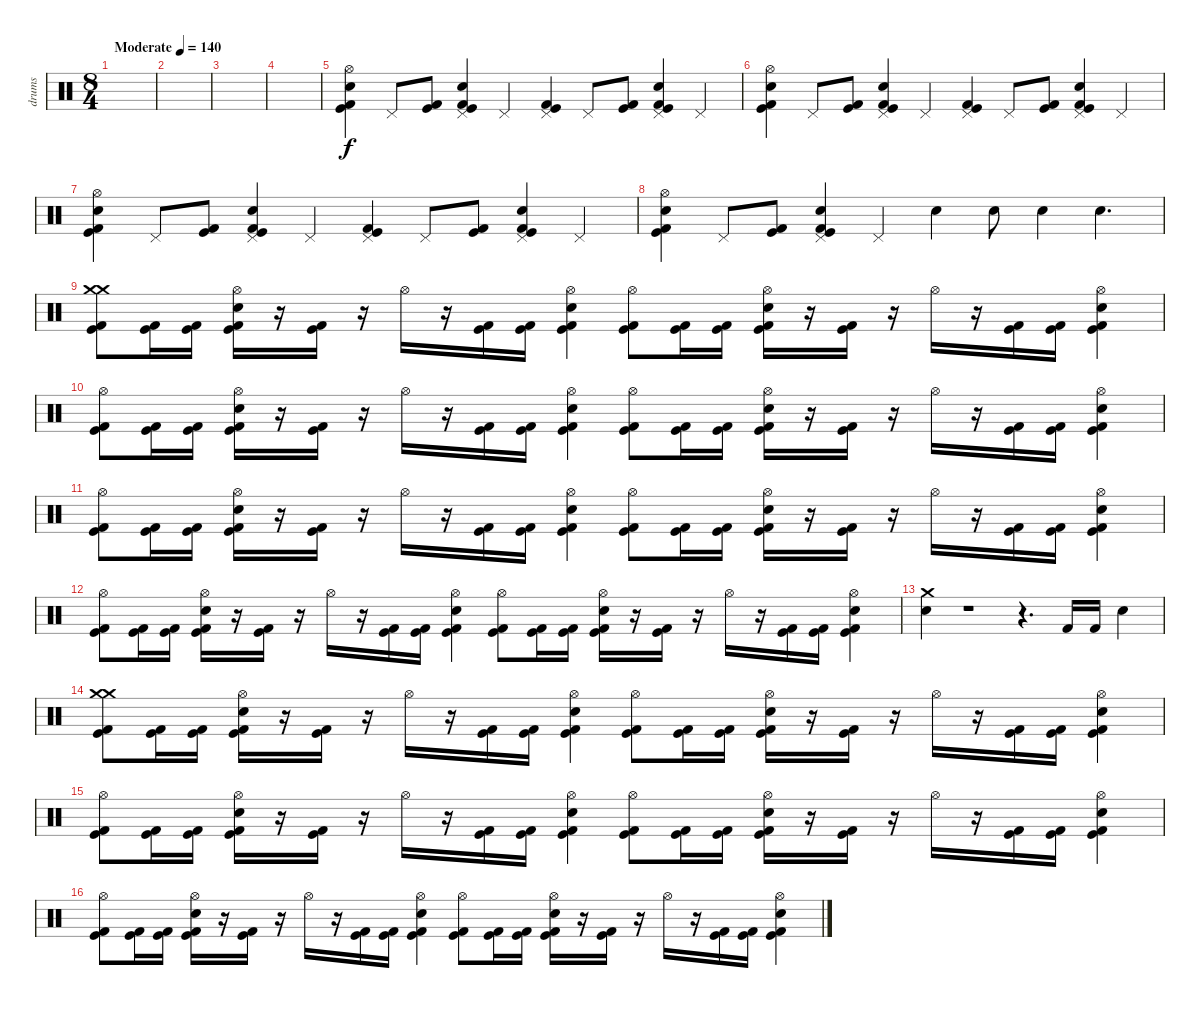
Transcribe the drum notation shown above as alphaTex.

\track ("drums" "drums") {instrument percussion}
\staff {score}
\articulation defaults
\ts (8 4)
\tempo (140 "Moderate")
\clef neutral
\ks c
|
|
|
|
("Snare (hit) 2" "Kick (hit) 2" "Kick (hit)" "Hi-Hat (open)").4 "Pedal Hi-Hat (hit)".8 ("Kick (hit)" "Kick (hit) 2").8 ("Snare (hit) 2" "Kick (hit)" "Kick (hit) 2" "Pedal Hi-Hat (hit)").4 "Pedal Hi-Hat (hit)".4 ("Kick (hit)" "Kick (hit) 2" "Pedal Hi-Hat (hit)").4 "Pedal Hi-Hat (hit)".8 ("Kick (hit)" "Kick (hit) 2").8 ("Kick (hit)" "Kick (hit) 2" "Snare (hit) 2" "Pedal Hi-Hat (hit)").4 "Pedal Hi-Hat (hit)".4 |
("Snare (hit) 2" "Kick (hit) 2" "Kick (hit)" "Hi-Hat (open)").4 "Pedal Hi-Hat (hit)".8 ("Kick (hit)" "Kick (hit) 2").8 ("Snare (hit) 2" "Kick (hit)" "Kick (hit) 2" "Pedal Hi-Hat (hit)").4 "Pedal Hi-Hat (hit)".4 ("Kick (hit)" "Kick (hit) 2" "Pedal Hi-Hat (hit)").4 "Pedal Hi-Hat (hit)".8 ("Kick (hit)" "Kick (hit) 2").8 ("Kick (hit)" "Kick (hit) 2" "Snare (hit) 2" "Pedal Hi-Hat (hit)").4 "Pedal Hi-Hat (hit)".4 |
("Snare (hit) 2" "Kick (hit) 2" "Kick (hit)" "Hi-Hat (open)").4 "Pedal Hi-Hat (hit)".8 ("Kick (hit)" "Kick (hit) 2").8 ("Snare (hit) 2" "Kick (hit)" "Kick (hit) 2" "Pedal Hi-Hat (hit)").4 "Pedal Hi-Hat (hit)".4 ("Kick (hit)" "Kick (hit) 2" "Pedal Hi-Hat (hit)").4 "Pedal Hi-Hat (hit)".8 ("Kick (hit)" "Kick (hit) 2").8 ("Kick (hit)" "Kick (hit) 2" "Snare (hit) 2" "Pedal Hi-Hat (hit)").4 "Pedal Hi-Hat (hit)".4 |
("Snare (hit) 2" "Kick (hit) 2" "Kick (hit)" "Hi-Hat (open)").4 "Pedal Hi-Hat (hit)".8 ("Kick (hit)" "Kick (hit) 2").8 ("Snare (hit) 2" "Kick (hit)" "Kick (hit) 2" "Pedal Hi-Hat (hit)").4 "Pedal Hi-Hat (hit)".4 "Snare (hit) 2".4 "Snare (hit) 2".8 "Snare (hit) 2".4 "Snare (hit) 2".4{d} |
("Kick (hit) 2" "Kick (hit)" "Crash medium (hit)" "Crash medium (hit)").8 ("Kick (hit) 2" "Kick (hit)").16 ("Kick (hit) 2" "Kick (hit)").16 ("Kick (hit) 2" "Kick (hit)" "Snare (hit) 2" "Hi-Hat (open)").16 r.16 ("Kick (hit) 2" "Kick (hit)").16 r.16 "Hi-Hat (open)".16 r.16 ("Kick (hit)" "Kick (hit) 2").16 ("Kick (hit) 2" "Kick (hit)").16 ("Kick (hit)" "Kick (hit) 2" "Snare (hit) 2" "Hi-Hat (open)").4 ("Kick (hit) 2" "Kick (hit)" "Hi-Hat (open)").8 ("Kick (hit) 2" "Kick (hit)").16 ("Kick (hit) 2" "Kick (hit)").16 ("Kick (hit) 2" "Kick (hit)" "Snare (hit) 2" "Hi-Hat (open)").16 r.16 ("Kick (hit) 2" "Kick (hit)").16 r.16 "Hi-Hat (open)".16 r.16 ("Kick (hit)" "Kick (hit) 2").16 ("Kick (hit) 2" "Kick (hit)").16 ("Kick (hit)" "Kick (hit) 2" "Snare (hit) 2" "Hi-Hat (open)").4 |
("Kick (hit) 2" "Kick (hit)" "Hi-Hat (open)").8 ("Kick (hit) 2" "Kick (hit)").16 ("Kick (hit) 2" "Kick (hit)").16 ("Kick (hit) 2" "Kick (hit)" "Snare (hit) 2" "Hi-Hat (open)").16 r.16 ("Kick (hit) 2" "Kick (hit)").16 r.16 "Hi-Hat (open)".16 r.16 ("Kick (hit)" "Kick (hit) 2").16 ("Kick (hit) 2" "Kick (hit)").16 ("Kick (hit)" "Kick (hit) 2" "Snare (hit) 2" "Hi-Hat (open)").4 ("Kick (hit) 2" "Kick (hit)" "Hi-Hat (open)").8 ("Kick (hit) 2" "Kick (hit)").16 ("Kick (hit) 2" "Kick (hit)").16 ("Kick (hit) 2" "Kick (hit)" "Snare (hit) 2" "Hi-Hat (open)").16 r.16 ("Kick (hit) 2" "Kick (hit)").16 r.16 "Hi-Hat (open)".16 r.16 ("Kick (hit)" "Kick (hit) 2").16 ("Kick (hit) 2" "Kick (hit)").16 ("Kick (hit)" "Kick (hit) 2" "Snare (hit) 2" "Hi-Hat (open)").4 |
("Kick (hit) 2" "Kick (hit)" "Hi-Hat (open)").8 ("Kick (hit) 2" "Kick (hit)").16 ("Kick (hit) 2" "Kick (hit)").16 ("Kick (hit) 2" "Kick (hit)" "Snare (hit) 2" "Hi-Hat (open)").16 r.16 ("Kick (hit) 2" "Kick (hit)").16 r.16 "Hi-Hat (open)".16 r.16 ("Kick (hit)" "Kick (hit) 2").16 ("Kick (hit) 2" "Kick (hit)").16 ("Kick (hit)" "Kick (hit) 2" "Snare (hit) 2" "Hi-Hat (open)").4 ("Kick (hit) 2" "Kick (hit)" "Hi-Hat (open)").8 ("Kick (hit) 2" "Kick (hit)").16 ("Kick (hit) 2" "Kick (hit)").16 ("Kick (hit) 2" "Kick (hit)" "Snare (hit) 2" "Hi-Hat (open)").16 r.16 ("Kick (hit) 2" "Kick (hit)").16 r.16 "Hi-Hat (open)".16 r.16 ("Kick (hit)" "Kick (hit) 2").16 ("Kick (hit) 2" "Kick (hit)").16 ("Kick (hit)" "Kick (hit) 2" "Snare (hit) 2" "Hi-Hat (open)").4 |
("Kick (hit) 2" "Kick (hit)" "Hi-Hat (open)").8 ("Kick (hit) 2" "Kick (hit)").16 ("Kick (hit) 2" "Kick (hit)").16 ("Kick (hit) 2" "Kick (hit)" "Snare (hit) 2" "Hi-Hat (open)").16 r.16 ("Kick (hit) 2" "Kick (hit)").16 r.16 "Hi-Hat (open)".16 r.16 ("Kick (hit)" "Kick (hit) 2").16 ("Kick (hit) 2" "Kick (hit)").16 ("Kick (hit)" "Kick (hit) 2" "Snare (hit) 2" "Hi-Hat (open)").4 ("Kick (hit) 2" "Kick (hit)" "Hi-Hat (open)").8 ("Kick (hit) 2" "Kick (hit)").16 ("Kick (hit) 2" "Kick (hit)").16 ("Kick (hit) 2" "Kick (hit)" "Snare (hit) 2" "Hi-Hat (open)").16 r.16 ("Kick (hit) 2" "Kick (hit)").16 r.16 "Hi-Hat (open)".16 r.16 ("Kick (hit)" "Kick (hit) 2").16 ("Kick (hit) 2" "Kick (hit)").16 ("Kick (hit)" "Kick (hit) 2" "Snare (hit) 2" "Hi-Hat (open)").4 |
("Crash medium (hit)" "Snare (hit) 2").4 r.1 r.4{d} "Kick (hit) 2".16 "Kick (hit) 2".16 "Electric Snare (hit)".4 |
("Kick (hit) 2" "Kick (hit)" "Crash medium (hit)" "Crash medium (hit)").8 ("Kick (hit) 2" "Kick (hit)").16 ("Kick (hit) 2" "Kick (hit)").16 ("Kick (hit) 2" "Kick (hit)" "Snare (hit) 2" "Hi-Hat (open)").16 r.16 ("Kick (hit) 2" "Kick (hit)").16 r.16 "Hi-Hat (open)".16 r.16 ("Kick (hit)" "Kick (hit) 2").16 ("Kick (hit) 2" "Kick (hit)").16 ("Kick (hit)" "Kick (hit) 2" "Snare (hit) 2" "Hi-Hat (open)").4 ("Kick (hit) 2" "Kick (hit)" "Hi-Hat (open)").8 ("Kick (hit) 2" "Kick (hit)").16 ("Kick (hit) 2" "Kick (hit)").16 ("Kick (hit) 2" "Kick (hit)" "Snare (hit) 2" "Hi-Hat (open)").16 r.16 ("Kick (hit) 2" "Kick (hit)").16 r.16 "Hi-Hat (open)".16 r.16 ("Kick (hit)" "Kick (hit) 2").16 ("Kick (hit) 2" "Kick (hit)").16 ("Kick (hit)" "Kick (hit) 2" "Snare (hit) 2" "Hi-Hat (open)").4 |
("Kick (hit) 2" "Kick (hit)" "Hi-Hat (open)").8 ("Kick (hit) 2" "Kick (hit)").16 ("Kick (hit) 2" "Kick (hit)").16 ("Kick (hit) 2" "Kick (hit)" "Snare (hit) 2" "Hi-Hat (open)").16 r.16 ("Kick (hit) 2" "Kick (hit)").16 r.16 "Hi-Hat (open)".16 r.16 ("Kick (hit)" "Kick (hit) 2").16 ("Kick (hit) 2" "Kick (hit)").16 ("Kick (hit)" "Kick (hit) 2" "Snare (hit) 2" "Hi-Hat (open)").4 ("Kick (hit) 2" "Kick (hit)" "Hi-Hat (open)").8 ("Kick (hit) 2" "Kick (hit)").16 ("Kick (hit) 2" "Kick (hit)").16 ("Kick (hit) 2" "Kick (hit)" "Snare (hit) 2" "Hi-Hat (open)").16 r.16 ("Kick (hit) 2" "Kick (hit)").16 r.16 "Hi-Hat (open)".16 r.16 ("Kick (hit)" "Kick (hit) 2").16 ("Kick (hit) 2" "Kick (hit)").16 ("Kick (hit)" "Kick (hit) 2" "Snare (hit) 2" "Hi-Hat (open)").4 |
("Kick (hit) 2" "Kick (hit)" "Hi-Hat (open)").8 ("Kick (hit) 2" "Kick (hit)").16 ("Kick (hit) 2" "Kick (hit)").16 ("Kick (hit) 2" "Kick (hit)" "Snare (hit) 2" "Hi-Hat (open)").16 r.16 ("Kick (hit) 2" "Kick (hit)").16 r.16 "Hi-Hat (open)".16 r.16 ("Kick (hit)" "Kick (hit) 2").16 ("Kick (hit) 2" "Kick (hit)").16 ("Kick (hit)" "Kick (hit) 2" "Snare (hit) 2" "Hi-Hat (open)").4 ("Kick (hit) 2" "Kick (hit)" "Hi-Hat (open)").8 ("Kick (hit) 2" "Kick (hit)").16 ("Kick (hit) 2" "Kick (hit)").16 ("Kick (hit) 2" "Kick (hit)" "Snare (hit) 2" "Hi-Hat (open)").16 r.16 ("Kick (hit) 2" "Kick (hit)").16 r.16 "Hi-Hat (open)".16 r.16 ("Kick (hit)" "Kick (hit) 2").16 ("Kick (hit) 2" "Kick (hit)").16 ("Kick (hit)" "Kick (hit) 2" "Snare (hit) 2" "Hi-Hat (open)").4
